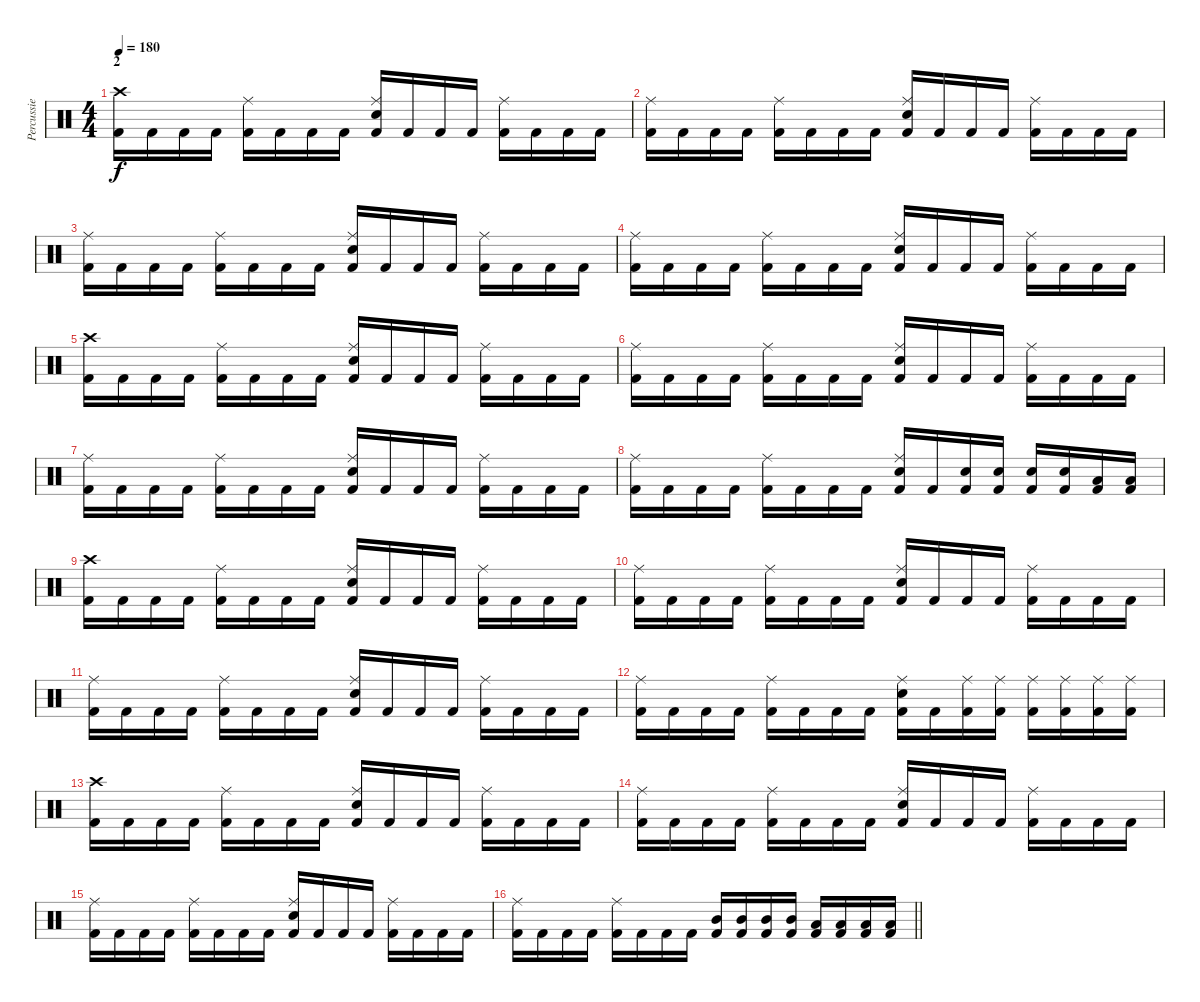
\track ("Percussie" "Percussie") {instrument percussion}
\staff {score}
\articulation defaults
\ts (4 4)
\section ("" "2")
\tempo 180
\clef neutral
\ks c
("Crash high (hit)" "Kick (hit) 2").16{dy f} "Kick (hit) 2".16 "Kick (hit) 2".16 "Kick (hit) 2".16 ("Ride (middle)" "Kick (hit) 2").16 "Kick (hit) 2".16 "Kick (hit) 2".16 "Kick (hit) 2".16 ("Ride (middle)" "Snare (hit) 2" "Kick (hit) 2").16 "Kick (hit) 2".16 "Kick (hit) 2".16 "Kick (hit) 2".16 ("Ride (middle)" "Kick (hit) 2").16 "Kick (hit) 2".16 "Kick (hit) 2".16 "Kick (hit) 2".16 |
("Ride (middle)" "Kick (hit) 2").16 "Kick (hit) 2".16 "Kick (hit) 2".16 "Kick (hit) 2".16 ("Ride (middle)" "Kick (hit) 2").16 "Kick (hit) 2".16 "Kick (hit) 2".16 "Kick (hit) 2".16 ("Ride (middle)" "Snare (hit) 2" "Kick (hit) 2").16 "Kick (hit) 2".16 "Kick (hit) 2".16 "Kick (hit) 2".16 ("Ride (middle)" "Kick (hit) 2").16 "Kick (hit) 2".16 "Kick (hit) 2".16 "Kick (hit) 2".16 |
("Ride (middle)" "Kick (hit) 2").16 "Kick (hit) 2".16 "Kick (hit) 2".16 "Kick (hit) 2".16 ("Ride (middle)" "Kick (hit) 2").16 "Kick (hit) 2".16 "Kick (hit) 2".16 "Kick (hit) 2".16 ("Ride (middle)" "Snare (hit) 2" "Kick (hit) 2").16 "Kick (hit) 2".16 "Kick (hit) 2".16 "Kick (hit) 2".16 ("Ride (middle)" "Kick (hit) 2").16 "Kick (hit) 2".16 "Kick (hit) 2".16 "Kick (hit) 2".16 |
("Ride (middle)" "Kick (hit) 2").16 "Kick (hit) 2".16 "Kick (hit) 2".16 "Kick (hit) 2".16 ("Ride (middle)" "Kick (hit) 2").16 "Kick (hit) 2".16 "Kick (hit) 2".16 "Kick (hit) 2".16 ("Ride (middle)" "Snare (hit) 2" "Kick (hit) 2").16 "Kick (hit) 2".16 "Kick (hit) 2".16 "Kick (hit) 2".16 ("Ride (middle)" "Kick (hit) 2").16 "Kick (hit) 2".16 "Kick (hit) 2".16 "Kick (hit) 2".16 |
("Crash high (hit)" "Kick (hit) 2").16 "Kick (hit) 2".16 "Kick (hit) 2".16 "Kick (hit) 2".16 ("Ride (middle)" "Kick (hit) 2").16 "Kick (hit) 2".16 "Kick (hit) 2".16 "Kick (hit) 2".16 ("Ride (middle)" "Snare (hit) 2" "Kick (hit) 2").16 "Kick (hit) 2".16 "Kick (hit) 2".16 "Kick (hit) 2".16 ("Ride (middle)" "Kick (hit) 2").16 "Kick (hit) 2".16 "Kick (hit) 2".16 "Kick (hit) 2".16 |
("Ride (middle)" "Kick (hit) 2").16 "Kick (hit) 2".16 "Kick (hit) 2".16 "Kick (hit) 2".16 ("Ride (middle)" "Kick (hit) 2").16 "Kick (hit) 2".16 "Kick (hit) 2".16 "Kick (hit) 2".16 ("Ride (middle)" "Snare (hit) 2" "Kick (hit) 2").16 "Kick (hit) 2".16 "Kick (hit) 2".16 "Kick (hit) 2".16 ("Ride (middle)" "Kick (hit) 2").16 "Kick (hit) 2".16 "Kick (hit) 2".16 "Kick (hit) 2".16 |
("Ride (middle)" "Kick (hit) 2").16 "Kick (hit) 2".16 "Kick (hit) 2".16 "Kick (hit) 2".16 ("Ride (middle)" "Kick (hit) 2").16 "Kick (hit) 2".16 "Kick (hit) 2".16 "Kick (hit) 2".16 ("Ride (middle)" "Snare (hit) 2" "Kick (hit) 2").16 "Kick (hit) 2".16 "Kick (hit) 2".16 "Kick (hit) 2".16 ("Ride (middle)" "Kick (hit) 2").16 "Kick (hit) 2".16 "Kick (hit) 2".16 "Kick (hit) 2".16 |
("Ride (middle)" "Kick (hit) 2").16 "Kick (hit) 2".16 "Kick (hit) 2".16 "Kick (hit) 2".16 ("Ride (middle)" "Kick (hit) 2").16 "Kick (hit) 2".16 "Kick (hit) 2".16 "Kick (hit) 2".16 ("Ride (middle)" "Snare (hit) 2" "Kick (hit) 2").16 "Kick (hit) 2".16 ("Snare (hit) 2" "Kick (hit) 2").16 ("Snare (hit) 2" "Kick (hit) 2").16 ("Snare (hit) 2" "Kick (hit) 2").16 ("Snare (hit) 2" "Kick (hit) 2").16 ("Low Tom (hit)" "Kick (hit) 2").16 ("Low Tom (hit)" "Kick (hit) 2").16 |
("Crash high (hit)" "Kick (hit) 2").16 "Kick (hit) 2".16 "Kick (hit) 2".16 "Kick (hit) 2".16 ("Ride (middle)" "Kick (hit) 2").16 "Kick (hit) 2".16 "Kick (hit) 2".16 "Kick (hit) 2".16 ("Ride (middle)" "Snare (hit) 2" "Kick (hit) 2").16 "Kick (hit) 2".16 "Kick (hit) 2".16 "Kick (hit) 2".16 ("Ride (middle)" "Kick (hit) 2").16 "Kick (hit) 2".16 "Kick (hit) 2".16 "Kick (hit) 2".16 |
("Ride (middle)" "Kick (hit) 2").16 "Kick (hit) 2".16 "Kick (hit) 2".16 "Kick (hit) 2".16 ("Ride (middle)" "Kick (hit) 2").16 "Kick (hit) 2".16 "Kick (hit) 2".16 "Kick (hit) 2".16 ("Ride (middle)" "Snare (hit) 2" "Kick (hit) 2").16 "Kick (hit) 2".16 "Kick (hit) 2".16 "Kick (hit) 2".16 ("Ride (middle)" "Kick (hit) 2").16 "Kick (hit) 2".16 "Kick (hit) 2".16 "Kick (hit) 2".16 |
("Ride (middle)" "Kick (hit) 2").16 "Kick (hit) 2".16 "Kick (hit) 2".16 "Kick (hit) 2".16 ("Ride (middle)" "Kick (hit) 2").16 "Kick (hit) 2".16 "Kick (hit) 2".16 "Kick (hit) 2".16 ("Ride (middle)" "Snare (hit) 2" "Kick (hit) 2").16 "Kick (hit) 2".16 "Kick (hit) 2".16 "Kick (hit) 2".16 ("Ride (middle)" "Kick (hit) 2").16 "Kick (hit) 2".16 "Kick (hit) 2".16 "Kick (hit) 2".16 |
("Ride (middle)" "Kick (hit) 2").16 "Kick (hit) 2".16 "Kick (hit) 2".16 "Kick (hit) 2".16 ("Ride (middle)" "Kick (hit) 2").16 "Kick (hit) 2".16 "Kick (hit) 2".16 "Kick (hit) 2".16 ("Ride (middle)" "Snare (hit) 2" "Kick (hit) 2").16 "Kick (hit) 2".16 ("Ride (middle)" "Kick (hit) 2").16 ("Ride (middle)" "Kick (hit) 2").16 ("Ride (middle)" "Kick (hit) 2").16 ("Ride (middle)" "Kick (hit) 2").16 ("Ride (middle)" "Kick (hit) 2").16 ("Ride (middle)" "Kick (hit) 2").16 |
("Crash high (hit)" "Kick (hit) 2").16 "Kick (hit) 2".16 "Kick (hit) 2".16 "Kick (hit) 2".16 ("Ride (middle)" "Kick (hit) 2").16 "Kick (hit) 2".16 "Kick (hit) 2".16 "Kick (hit) 2".16 ("Ride (middle)" "Snare (hit) 2" "Kick (hit) 2").16 "Kick (hit) 2".16 "Kick (hit) 2".16 "Kick (hit) 2".16 ("Ride (middle)" "Kick (hit) 2").16 "Kick (hit) 2".16 "Kick (hit) 2".16 "Kick (hit) 2".16 |
("Ride (middle)" "Kick (hit) 2").16 "Kick (hit) 2".16 "Kick (hit) 2".16 "Kick (hit) 2".16 ("Ride (middle)" "Kick (hit) 2").16 "Kick (hit) 2".16 "Kick (hit) 2".16 "Kick (hit) 2".16 ("Ride (middle)" "Snare (hit) 2" "Kick (hit) 2").16 "Kick (hit) 2".16 "Kick (hit) 2".16 "Kick (hit) 2".16 ("Ride (middle)" "Kick (hit) 2").16 "Kick (hit) 2".16 "Kick (hit) 2".16 "Kick (hit) 2".16 |
("Ride (middle)" "Kick (hit) 2").16 "Kick (hit) 2".16 "Kick (hit) 2".16 "Kick (hit) 2".16 ("Ride (middle)" "Kick (hit) 2").16 "Kick (hit) 2".16 "Kick (hit) 2".16 "Kick (hit) 2".16 ("Ride (middle)" "Snare (hit) 2" "Kick (hit) 2").16 "Kick (hit) 2".16 "Kick (hit) 2".16 "Kick (hit) 2".16 ("Ride (middle)" "Kick (hit) 2").16 "Kick (hit) 2".16 "Kick (hit) 2".16 "Kick (hit) 2".16 |
\barLineRight lightlight
("Ride (middle)" "Kick (hit) 2").16 "Kick (hit) 2".16 "Kick (hit) 2".16 "Kick (hit) 2".16 ("Ride (middle)" "Kick (hit) 2").16 "Kick (hit) 2".16 "Kick (hit) 2".16 "Kick (hit) 2".16 ("Mid Tom (hit)" "Kick (hit) 2").16 ("Mid Tom (hit)" "Kick (hit) 2").16 ("Mid Tom (hit)" "Kick (hit) 2").16 ("Mid Tom (hit)" "Kick (hit) 2").16 ("Low Tom (hit)" "Kick (hit) 2").16 ("Low Tom (hit)" "Kick (hit) 2").16 ("Low Tom (hit)" "Kick (hit) 2").16 ("Low Tom (hit)" "Kick (hit) 2").16
